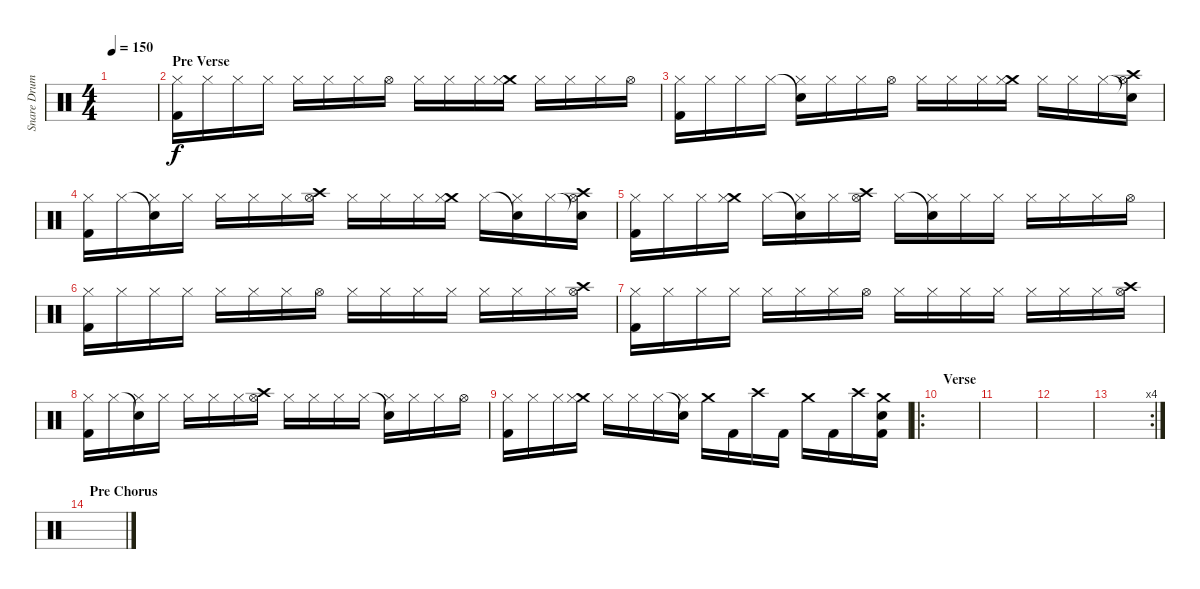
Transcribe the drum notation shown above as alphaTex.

\track ("Snare Drum" "Snare Drum") {instrument percussion}
\staff {score}
\articulation defaults
\ts (4 4)
\tempo 150
\clef neutral
\ks c
|
\section ("" "Pre Verse")
("Hi-Hat (closed)" "Kick (hit) 2").16 "Hi-Hat (closed)".16 "Hi-Hat (closed)".16 "Hi-Hat (closed)".16 "Hi-Hat (closed)".16 "Hi-Hat (closed)".16 "Hi-Hat (closed)".16 "Hi-Hat (open)".16 "Hi-Hat (closed)".16 "Hi-Hat (closed)".16 "Hi-Hat (closed)".16 ("Crash medium (hit)" "Hi-Hat (closed)").16 "Hi-Hat (closed)".16 "Hi-Hat (closed)".16 "Hi-Hat (closed)".16 "Hi-Hat (open)".16 |
("Hi-Hat (closed)" "Kick (hit) 2").16 "Hi-Hat (closed)".16 "Hi-Hat (closed)".16 "Hi-Hat (closed)".16 ("Snare (hit)"{t} "Hi-Hat (closed)").16 "Hi-Hat (closed)".16 "Hi-Hat (closed)".16 "Hi-Hat (open)".16 "Hi-Hat (closed)".16 "Hi-Hat (closed)".16 "Hi-Hat (closed)".16 ("Crash medium (hit)" "Hi-Hat (closed)").16 "Hi-Hat (closed)".16 "Hi-Hat (closed)".16 "Hi-Hat (closed)".16 ("Snare (hit)"{t} "Crash high (hit)" "Hi-Hat (open)").16 |
("Hi-Hat (closed)" "Kick (hit) 2").16 "Hi-Hat (closed)".16 ("Snare (hit)"{t} "Hi-Hat (closed)").16 "Hi-Hat (closed)".16 "Hi-Hat (closed)".16 "Hi-Hat (closed)".16 "Hi-Hat (closed)".16 ("Crash high (hit)" "Hi-Hat (open)").16 "Hi-Hat (closed)".16 "Hi-Hat (closed)".16 "Hi-Hat (closed)".16 ("Crash medium (hit)" "Hi-Hat (closed)").16 "Hi-Hat (closed)".16 ("Snare (hit)"{t} "Hi-Hat (closed)").16 "Hi-Hat (closed)".16 ("Snare (hit)"{t} "Crash high (hit)" "Hi-Hat (open)").16 |
("Hi-Hat (closed)" "Kick (hit) 2").16 "Hi-Hat (closed)".16 "Hi-Hat (closed)".16 ("Crash medium (hit)" "Hi-Hat (closed)").16 "Hi-Hat (closed)".16 ("Snare (hit)"{t} "Hi-Hat (closed)").16 "Hi-Hat (closed)".16 ("Crash high (hit)" "Hi-Hat (open)").16 "Hi-Hat (closed)".16 ("Snare (hit)"{t} "Hi-Hat (closed)").16 "Hi-Hat (closed)".16 "Hi-Hat (closed)".16 "Hi-Hat (closed)".16 "Hi-Hat (closed)".16 "Hi-Hat (closed)".16 "Hi-Hat (open)".16 |
("Hi-Hat (closed)" "Kick (hit) 2").16 "Hi-Hat (closed)".16 "Hi-Hat (closed)".16 "Hi-Hat (closed)".16 "Hi-Hat (closed)".16 "Hi-Hat (closed)".16 "Hi-Hat (closed)".16 "Hi-Hat (open)".16 "Hi-Hat (closed)".16 "Hi-Hat (closed)".16 "Hi-Hat (closed)".16 "Hi-Hat (closed)".16 "Hi-Hat (closed)".16 "Hi-Hat (closed)".16 "Hi-Hat (closed)".16 ("Crash high (hit)" "Hi-Hat (open)").16 |
("Hi-Hat (closed)" "Kick (hit) 2").16 "Hi-Hat (closed)".16 "Hi-Hat (closed)".16 "Hi-Hat (closed)".16 "Hi-Hat (closed)".16 "Hi-Hat (closed)".16 "Hi-Hat (closed)".16 "Hi-Hat (open)".16 "Hi-Hat (closed)".16 "Hi-Hat (closed)".16 "Hi-Hat (closed)".16 "Hi-Hat (closed)".16 "Hi-Hat (closed)".16 "Hi-Hat (closed)".16 "Hi-Hat (closed)".16 ("Crash high (hit)" "Hi-Hat (open)").16 |
("Hi-Hat (closed)" "Kick (hit) 2").16 "Hi-Hat (closed)".16 ("Snare (hit)"{t} "Hi-Hat (closed)").16 "Hi-Hat (closed)".16 "Hi-Hat (closed)".16 "Hi-Hat (closed)".16 "Hi-Hat (closed)".16 ("Crash high (hit)" "Hi-Hat (open)").16 "Hi-Hat (closed)".16 "Hi-Hat (closed)".16 "Hi-Hat (closed)".16 "Hi-Hat (closed)".16 ("Snare (hit)"{t} "Hi-Hat (closed)").16 "Hi-Hat (closed)".16 "Hi-Hat (closed)".16 "Hi-Hat (open)".16 |
("Hi-Hat (closed)" "Kick (hit) 2").16 "Hi-Hat (closed)".16 "Hi-Hat (closed)".16 ("Crash medium (hit)" "Hi-Hat (closed)").16 "Hi-Hat (closed)".16 "Hi-Hat (closed)".16 "Hi-Hat (closed)".16 ("Snare (hit)"{t} "Hi-Hat (closed)").16 "Crash medium (hit)".16 "Kick (hit) 2".16 "Crash high (hit)".16 "Kick (hit) 2".16 "Crash medium (hit)".16 "Kick (hit) 2".16 "Crash high (hit)".16 ("Crash medium (hit)" "Snare (hit) 2" "Kick (hit) 2").16 |
\ro
\section ("" "Verse")
|
|
|
\rc 4
|
\section ("" "Pre Chorus")
